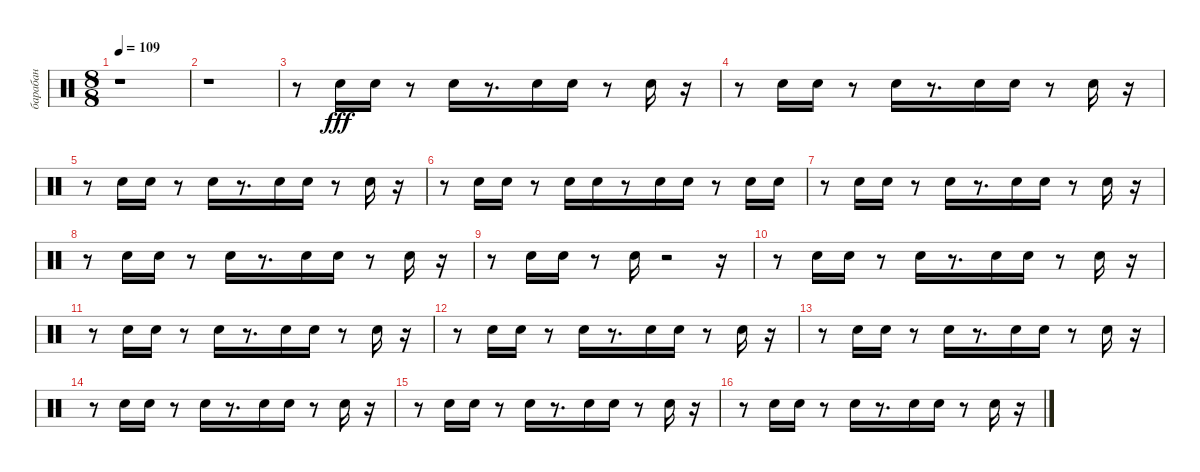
\track ("барабан" "барабан") {instrument percussion}
\staff {score}
\articulation defaults
\ts (8 8)
\tempo 109
\clef neutral
\ks c
r.1{dy fff} |
r.1 |
r.8 "Electric Snare (hit)".16 "Electric Snare (hit)".16 r.8 "Electric Snare (hit)".16 r.8{d} "Electric Snare (hit)".16 "Electric Snare (hit)".16 r.8 "Electric Snare (hit)".16 r.16 |
r.8 "Electric Snare (hit)".16 "Electric Snare (hit)".16 r.8 "Electric Snare (hit)".16 r.8{d} "Electric Snare (hit)".16 "Electric Snare (hit)".16 r.8 "Electric Snare (hit)".16 r.16 |
r.8 "Electric Snare (hit)".16 "Electric Snare (hit)".16 r.8 "Electric Snare (hit)".16 r.8{d} "Electric Snare (hit)".16 "Electric Snare (hit)".16 r.8 "Electric Snare (hit)".16 r.16 |
r.8 "Electric Snare (hit)".16 "Electric Snare (hit)".16 r.8 "Electric Snare (hit)".16 "Electric Snare (hit)".16 r.8 "Electric Snare (hit)".16 "Electric Snare (hit)".16 r.8 "Electric Snare (hit)".16 "Electric Snare (hit)".16 |
r.8 "Electric Snare (hit)".16 "Electric Snare (hit)".16 r.8 "Electric Snare (hit)".16 r.8{d} "Electric Snare (hit)".16 "Electric Snare (hit)".16 r.8 "Electric Snare (hit)".16 r.16 |
r.8 "Electric Snare (hit)".16 "Electric Snare (hit)".16 r.8 "Electric Snare (hit)".16 r.8{d} "Electric Snare (hit)".16 "Electric Snare (hit)".16 r.8 "Electric Snare (hit)".16 r.16 |
r.8 "Electric Snare (hit)".16 "Electric Snare (hit)".16 r.8 "Electric Snare (hit)".16 r.2 r.16 |
r.8 "Electric Snare (hit)".16 "Electric Snare (hit)".16 r.8 "Electric Snare (hit)".16 r.8{d} "Electric Snare (hit)".16 "Electric Snare (hit)".16 r.8 "Electric Snare (hit)".16 r.16 |
r.8 "Electric Snare (hit)".16 "Electric Snare (hit)".16 r.8 "Electric Snare (hit)".16 r.8{d} "Electric Snare (hit)".16 "Electric Snare (hit)".16 r.8 "Electric Snare (hit)".16 r.16 |
r.8 "Electric Snare (hit)".16 "Electric Snare (hit)".16 r.8 "Electric Snare (hit)".16 r.8{d} "Electric Snare (hit)".16 "Electric Snare (hit)".16 r.8 "Electric Snare (hit)".16 r.16 |
r.8 "Electric Snare (hit)".16 "Electric Snare (hit)".16 r.8 "Electric Snare (hit)".16 r.8{d} "Electric Snare (hit)".16 "Electric Snare (hit)".16 r.8 "Electric Snare (hit)".16 r.16 |
r.8 "Electric Snare (hit)".16 "Electric Snare (hit)".16 r.8 "Electric Snare (hit)".16 r.8{d} "Electric Snare (hit)".16 "Electric Snare (hit)".16 r.8 "Electric Snare (hit)".16 r.16 |
r.8 "Electric Snare (hit)".16 "Electric Snare (hit)".16 r.8 "Electric Snare (hit)".16 r.8{d} "Electric Snare (hit)".16 "Electric Snare (hit)".16 r.8 "Electric Snare (hit)".16 r.16 |
r.8 "Electric Snare (hit)".16 "Electric Snare (hit)".16 r.8 "Electric Snare (hit)".16 r.8{d} "Electric Snare (hit)".16 "Electric Snare (hit)".16 r.8 "Electric Snare (hit)".16 r.16
